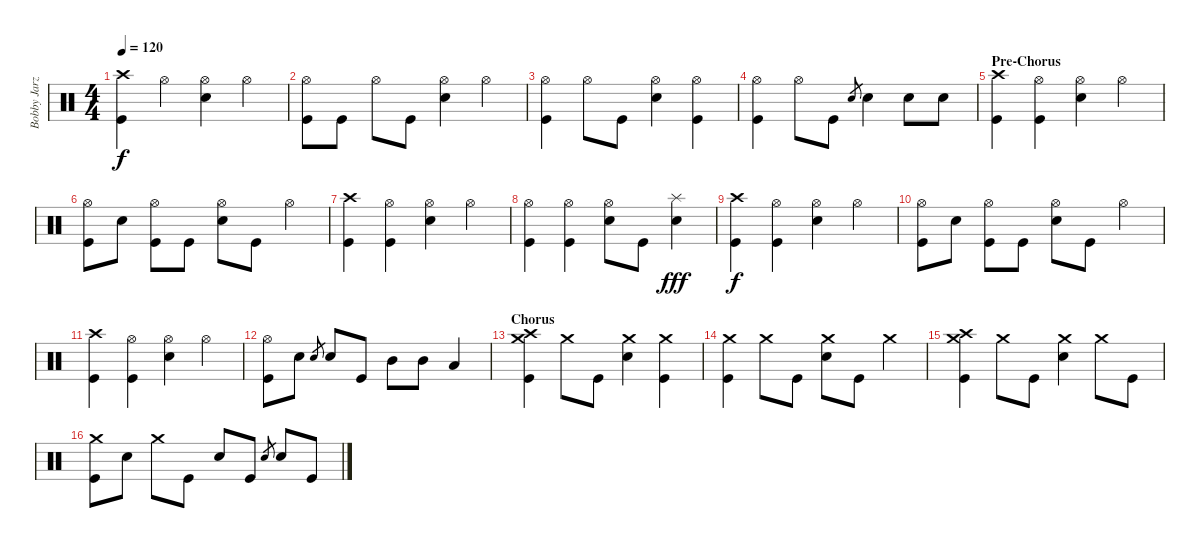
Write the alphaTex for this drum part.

\track ("Bobby Jarzombek" "Bobby Jarz") {instrument percussion}
\staff {score}
\articulation defaults
\ts (4 4)
\tempo 120
\clef neutral
\ks c
("Crash high (hit)" "Kick (hit)").4{dy f} "Hi-Hat (open)".4 ("Hi-Hat (open)" "Electric Snare (hit)").4 "Hi-Hat (open)".4 |
("Hi-Hat (open)" "Kick (hit)").8 "Kick (hit)".8 "Hi-Hat (open)".8 "Kick (hit)".8 ("Hi-Hat (open)" "Electric Snare (hit)").4 "Hi-Hat (open)".4 |
("Hi-Hat (open)" "Kick (hit)").4 "Hi-Hat (open)".8 "Kick (hit)".8 ("Hi-Hat (open)" "Electric Snare (hit)").4 ("Hi-Hat (open)" "Kick (hit)").4 |
("Hi-Hat (open)" "Kick (hit)").4 "Hi-Hat (open)".8 "Kick (hit)".8 "Electric Snare (hit)".8{gr} "Electric Snare (hit)".4 "Electric Snare (hit)".8 "Electric Snare (hit)".8 |
\section ("" "Pre-Chorus")
("Crash high (hit)" "Kick (hit)").4 ("Hi-Hat (open)" "Kick (hit)").4 ("Hi-Hat (open)" "Electric Snare (hit)").4 "Hi-Hat (open)".4 |
("Hi-Hat (open)" "Kick (hit)").8 "Electric Snare (hit)".8 ("Hi-Hat (open)" "Kick (hit)").8 "Kick (hit)".8 ("Hi-Hat (open)" "Electric Snare (hit)").8 "Kick (hit)".8 "Hi-Hat (open)".4 |
("Crash high (hit)" "Kick (hit)").4 ("Hi-Hat (open)" "Kick (hit)").4 ("Hi-Hat (open)" "Electric Snare (hit)").4 "Hi-Hat (open)".4 |
("Hi-Hat (open)" "Kick (hit)").4 ("Hi-Hat (open)" "Kick (hit)").4 ("Hi-Hat (open)" "Electric Snare (hit)").8 "Kick (hit)".8 ("Splash (hit)" "Electric Snare (hit)").4{dy fff} |
("Crash high (hit)" "Kick (hit)").4{dy f} ("Hi-Hat (open)" "Kick (hit)").4 ("Hi-Hat (open)" "Electric Snare (hit)").4 "Hi-Hat (open)".4 |
("Hi-Hat (open)" "Kick (hit)").8 "Electric Snare (hit)".8 ("Hi-Hat (open)" "Kick (hit)").8 "Kick (hit)".8 ("Hi-Hat (open)" "Electric Snare (hit)").8 "Kick (hit)".8 "Hi-Hat (open)".4 |
("Crash high (hit)" "Kick (hit)").4 ("Hi-Hat (open)" "Kick (hit)").4 ("Hi-Hat (open)" "Electric Snare (hit)").4 "Hi-Hat (open)".4 |
("Hi-Hat (open)" "Kick (hit)").8 "Electric Snare (hit)".8 "Electric Snare (hit)".8{gr} "Electric Snare (hit)".8 "Kick (hit)".8 "Mid Tom (hit)".8 "Mid Tom (hit)".8 "Low Tom (hit)".4 |
\section ("" "Chorus")
("Crash high (hit)" "Crash medium (hit)" "Kick (hit)").4 "Crash medium (hit)".8 "Kick (hit)".8 ("Crash medium (hit)" "Electric Snare (hit)").4 ("Crash medium (hit)" "Kick (hit)").4 |
("Crash medium (hit)" "Kick (hit)").4 "Crash medium (hit)".8 "Kick (hit)".8 ("Crash medium (hit)" "Electric Snare (hit)").8 "Kick (hit)".8 "Crash medium (hit)".4 |
("Crash high (hit)" "Crash medium (hit)" "Kick (hit)").4 "Crash medium (hit)".8 "Kick (hit)".8 ("Crash medium (hit)" "Electric Snare (hit)").4 "Crash medium (hit)".8 "Kick (hit)".8 |
("Crash medium (hit)" "Kick (hit)").8 "Electric Snare (hit)".8 "Crash medium (hit)".8 "Kick (hit)".8 "Electric Snare (hit)".8 "Kick (hit)".8 "Electric Snare (hit)".8{gr} "Electric Snare (hit)".8 "Kick (hit)".8
